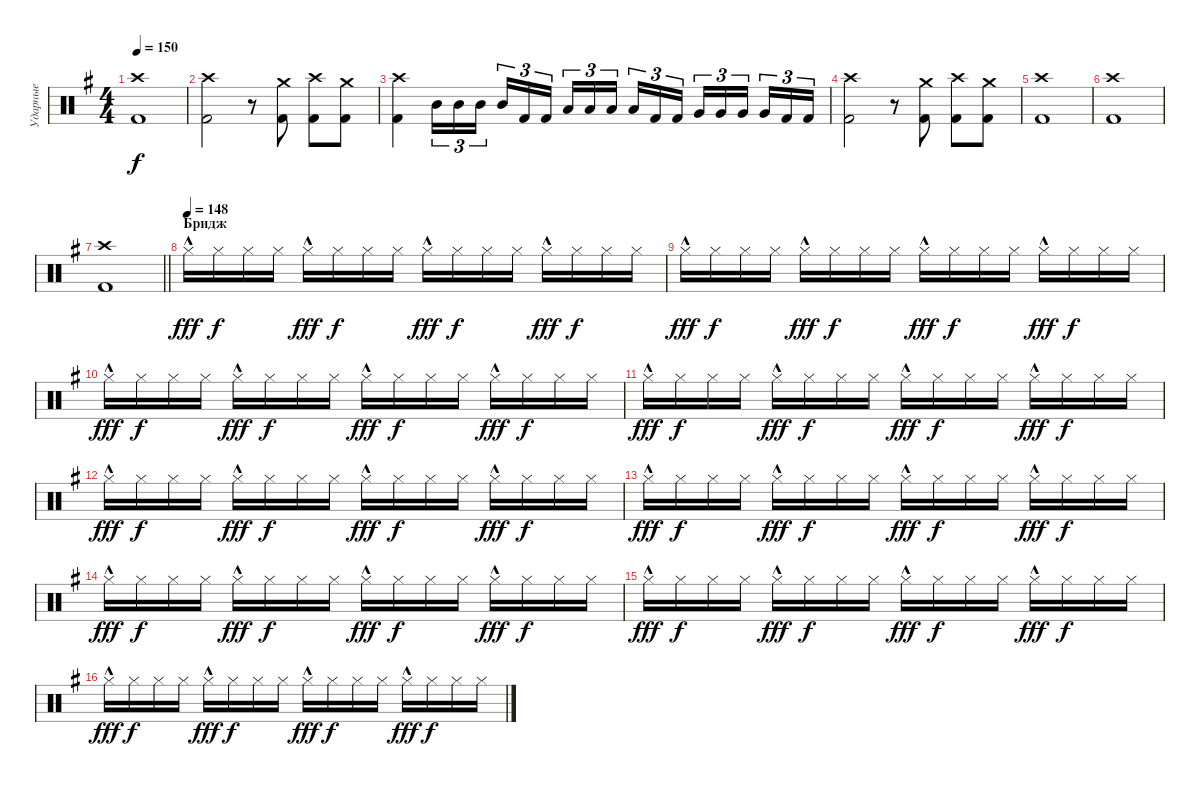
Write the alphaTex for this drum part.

\track ("Ударные" "Ударные") {instrument percussion}
\staff {score}
\articulation defaults
\ts (4 4)
\tempo 150
\clef neutral
\ks eminor
("Crash high (hit)" "Kick (hit) 2").1{dy f} |
("Crash high (hit)" "Kick (hit) 2").2 r.8 ("Crash medium (hit)" "Kick (hit) 2").8 ("Crash high (hit)" "Kick (hit) 2").8 ("Crash medium (hit)" "Kick (hit) 2").8 |
("Crash high (hit)" "Kick (hit) 2").4 "Mid Tom (hit)".16{tu (3 2)} "Mid Tom (hit)".16{tu (3 2)} "Mid Tom (hit)".16{tu (3 2) beam splitsecondary} "Mid Tom (hit)".16{tu (3 2)} "Kick (hit) 2".16{tu (3 2)} "Kick (hit) 2".16{tu (3 2)} "Low Tom (hit)".16{tu (3 2)} "Low Tom (hit)".16{tu (3 2)} "Low Tom (hit)".16{tu (3 2) beam splitsecondary} "Low Tom (hit)".16{tu (3 2)} "Kick (hit) 2".16{tu (3 2)} "Kick (hit) 2".16{tu (3 2)} "Very Low Tom (hit)".16{tu (3 2)} "Very Low Tom (hit)".16{tu (3 2)} "Very Low Tom (hit)".16{tu (3 2) beam splitsecondary} "Very Low Tom (hit)".16{tu (3 2)} "Kick (hit) 2".16{tu (3 2)} "Kick (hit) 2".16{tu (3 2)} |
("Crash high (hit)" "Kick (hit) 2").2 r.8 ("Crash medium (hit)" "Kick (hit) 2").8 ("Crash high (hit)" "Kick (hit) 2").8 ("Crash medium (hit)" "Kick (hit) 2").8 |
("Crash high (hit)" "Kick (hit) 2").1 |
("Crash high (hit)" "Kick (hit) 2").1 |
\barLineRight lightlight
("Crash high (hit)" "Kick (hit) 2").1 |
\section ("" "Бридж")
\tempo (148)
"Hi-Hat (closed)"{hac}.16{dy fff} "Hi-Hat (closed)".16{dy f} "Hi-Hat (closed)".16 "Hi-Hat (closed)".16 "Hi-Hat (closed)"{hac}.16{dy fff} "Hi-Hat (closed)".16{dy f} "Hi-Hat (closed)".16 "Hi-Hat (closed)".16 "Hi-Hat (closed)"{hac}.16{dy fff} "Hi-Hat (closed)".16{dy f} "Hi-Hat (closed)".16 "Hi-Hat (closed)".16 "Hi-Hat (closed)"{hac}.16{dy fff} "Hi-Hat (closed)".16{dy f} "Hi-Hat (closed)".16 "Hi-Hat (closed)".16 |
"Hi-Hat (closed)"{hac}.16{dy fff} "Hi-Hat (closed)".16{dy f} "Hi-Hat (closed)".16 "Hi-Hat (closed)".16 "Hi-Hat (closed)"{hac}.16{dy fff} "Hi-Hat (closed)".16{dy f} "Hi-Hat (closed)".16 "Hi-Hat (closed)".16 "Hi-Hat (closed)"{hac}.16{dy fff} "Hi-Hat (closed)".16{dy f} "Hi-Hat (closed)".16 "Hi-Hat (closed)".16 "Hi-Hat (closed)"{hac}.16{dy fff} "Hi-Hat (closed)".16{dy f} "Hi-Hat (closed)".16 "Hi-Hat (closed)".16 |
"Hi-Hat (closed)"{hac}.16{dy fff} "Hi-Hat (closed)".16{dy f} "Hi-Hat (closed)".16 "Hi-Hat (closed)".16 "Hi-Hat (closed)"{hac}.16{dy fff} "Hi-Hat (closed)".16{dy f} "Hi-Hat (closed)".16 "Hi-Hat (closed)".16 "Hi-Hat (closed)"{hac}.16{dy fff} "Hi-Hat (closed)".16{dy f} "Hi-Hat (closed)".16 "Hi-Hat (closed)".16 "Hi-Hat (closed)"{hac}.16{dy fff} "Hi-Hat (closed)".16{dy f} "Hi-Hat (closed)".16 "Hi-Hat (closed)".16 |
"Hi-Hat (closed)"{hac}.16{dy fff} "Hi-Hat (closed)".16{dy f} "Hi-Hat (closed)".16 "Hi-Hat (closed)".16 "Hi-Hat (closed)"{hac}.16{dy fff} "Hi-Hat (closed)".16{dy f} "Hi-Hat (closed)".16 "Hi-Hat (closed)".16 "Hi-Hat (closed)"{hac}.16{dy fff} "Hi-Hat (closed)".16{dy f} "Hi-Hat (closed)".16 "Hi-Hat (closed)".16 "Hi-Hat (closed)"{hac}.16{dy fff} "Hi-Hat (closed)".16{dy f} "Hi-Hat (closed)".16 "Hi-Hat (closed)".16 |
"Hi-Hat (closed)"{hac}.16{dy fff} "Hi-Hat (closed)".16{dy f} "Hi-Hat (closed)".16 "Hi-Hat (closed)".16 "Hi-Hat (closed)"{hac}.16{dy fff} "Hi-Hat (closed)".16{dy f} "Hi-Hat (closed)".16 "Hi-Hat (closed)".16 "Hi-Hat (closed)"{hac}.16{dy fff} "Hi-Hat (closed)".16{dy f} "Hi-Hat (closed)".16 "Hi-Hat (closed)".16 "Hi-Hat (closed)"{hac}.16{dy fff} "Hi-Hat (closed)".16{dy f} "Hi-Hat (closed)".16 "Hi-Hat (closed)".16 |
"Hi-Hat (closed)"{hac}.16{dy fff} "Hi-Hat (closed)".16{dy f} "Hi-Hat (closed)".16 "Hi-Hat (closed)".16 "Hi-Hat (closed)"{hac}.16{dy fff} "Hi-Hat (closed)".16{dy f} "Hi-Hat (closed)".16 "Hi-Hat (closed)".16 "Hi-Hat (closed)"{hac}.16{dy fff} "Hi-Hat (closed)".16{dy f} "Hi-Hat (closed)".16 "Hi-Hat (closed)".16 "Hi-Hat (closed)"{hac}.16{dy fff} "Hi-Hat (closed)".16{dy f} "Hi-Hat (closed)".16 "Hi-Hat (closed)".16 |
"Hi-Hat (closed)"{hac}.16{dy fff} "Hi-Hat (closed)".16{dy f} "Hi-Hat (closed)".16 "Hi-Hat (closed)".16 "Hi-Hat (closed)"{hac}.16{dy fff} "Hi-Hat (closed)".16{dy f} "Hi-Hat (closed)".16 "Hi-Hat (closed)".16 "Hi-Hat (closed)"{hac}.16{dy fff} "Hi-Hat (closed)".16{dy f} "Hi-Hat (closed)".16 "Hi-Hat (closed)".16 "Hi-Hat (closed)"{hac}.16{dy fff} "Hi-Hat (closed)".16{dy f} "Hi-Hat (closed)".16 "Hi-Hat (closed)".16 |
"Hi-Hat (closed)"{hac}.16{dy fff} "Hi-Hat (closed)".16{dy f} "Hi-Hat (closed)".16 "Hi-Hat (closed)".16 "Hi-Hat (closed)"{hac}.16{dy fff} "Hi-Hat (closed)".16{dy f} "Hi-Hat (closed)".16 "Hi-Hat (closed)".16 "Hi-Hat (closed)"{hac}.16{dy fff} "Hi-Hat (closed)".16{dy f} "Hi-Hat (closed)".16 "Hi-Hat (closed)".16 "Hi-Hat (closed)"{hac}.16{dy fff} "Hi-Hat (closed)".16{dy f} "Hi-Hat (closed)".16 "Hi-Hat (closed)".16 |
"Hi-Hat (closed)"{hac}.16{dy fff} "Hi-Hat (closed)".16{dy f} "Hi-Hat (closed)".16 "Hi-Hat (closed)".16 "Hi-Hat (closed)"{hac}.16{dy fff} "Hi-Hat (closed)".16{dy f} "Hi-Hat (closed)".16 "Hi-Hat (closed)".16 "Hi-Hat (closed)"{hac}.16{dy fff} "Hi-Hat (closed)".16{dy f} "Hi-Hat (closed)".16 "Hi-Hat (closed)".16 "Hi-Hat (closed)"{hac}.16{dy fff} "Hi-Hat (closed)".16{dy f} "Hi-Hat (closed)".16 "Hi-Hat (closed)".16
